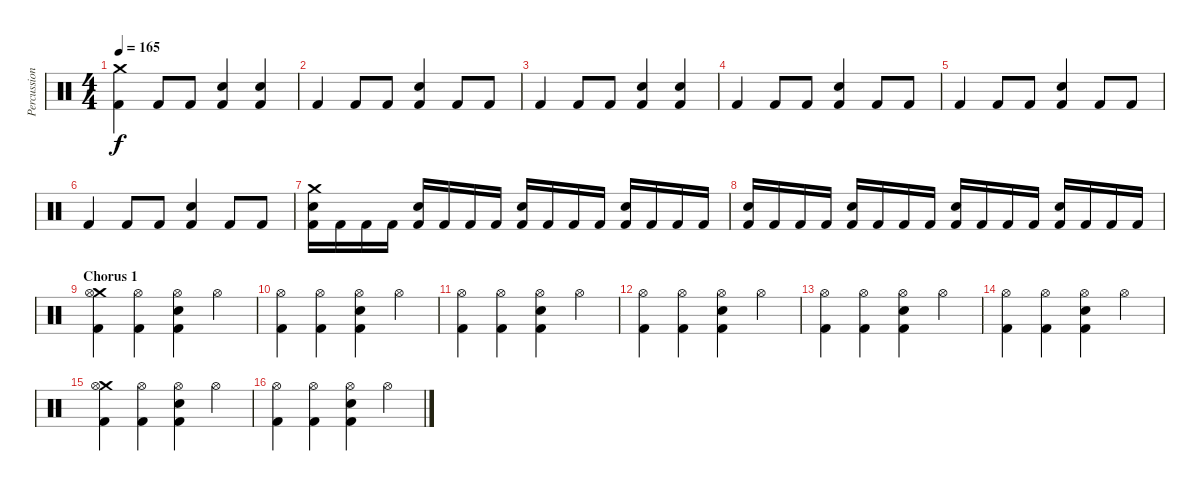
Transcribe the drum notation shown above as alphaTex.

\track ("Percussions" "Percussion") {instrument percussion}
\staff {score}
\articulation defaults
\ts (4 4)
\tempo 165
\clef neutral
\ks c
("Crash medium (hit)" "Kick (hit) 2").4{dy f} "Kick (hit) 2".8 "Kick (hit) 2".8 ("Electric Snare (hit)" "Kick (hit) 2").4 ("Electric Snare (hit)" "Kick (hit) 2").4 |
"Kick (hit) 2".4 "Kick (hit) 2".8 "Kick (hit) 2".8 ("Electric Snare (hit)" "Kick (hit) 2").4 "Kick (hit) 2".8 "Kick (hit) 2".8 |
"Kick (hit) 2".4 "Kick (hit) 2".8 "Kick (hit) 2".8 ("Electric Snare (hit)" "Kick (hit) 2").4 ("Electric Snare (hit)" "Kick (hit) 2").4 |
"Kick (hit) 2".4 "Kick (hit) 2".8 "Kick (hit) 2".8 ("Electric Snare (hit)" "Kick (hit) 2").4 "Kick (hit) 2".8 "Kick (hit) 2".8 |
"Kick (hit) 2".4 "Kick (hit) 2".8 "Kick (hit) 2".8 ("Electric Snare (hit)" "Kick (hit) 2").4 "Kick (hit) 2".8 "Kick (hit) 2".8 |
"Kick (hit) 2".4 "Kick (hit) 2".8 "Kick (hit) 2".8 ("Electric Snare (hit)" "Kick (hit) 2").4 "Kick (hit) 2".8 "Kick (hit) 2".8 |
("Crash medium (hit)" "Electric Snare (hit)" "Kick (hit) 2").16 "Kick (hit) 2".16 "Kick (hit) 2".16 "Kick (hit) 2".16 ("Electric Snare (hit)" "Kick (hit) 2").16 "Kick (hit) 2".16 "Kick (hit) 2".16 "Kick (hit) 2".16 ("Electric Snare (hit)" "Kick (hit) 2").16 "Kick (hit) 2".16 "Kick (hit) 2".16 "Kick (hit) 2".16 ("Electric Snare (hit)" "Kick (hit) 2").16 "Kick (hit) 2".16 "Kick (hit) 2".16 "Kick (hit) 2".16 |
("Electric Snare (hit)" "Kick (hit) 2").16 "Kick (hit) 2".16 "Kick (hit) 2".16 "Kick (hit) 2".16 ("Electric Snare (hit)" "Kick (hit) 2").16 "Kick (hit) 2".16 "Kick (hit) 2".16 "Kick (hit) 2".16 ("Electric Snare (hit)" "Kick (hit) 2").16 "Kick (hit) 2".16 "Kick (hit) 2".16 "Kick (hit) 2".16 ("Electric Snare (hit)" "Kick (hit) 2").16 "Kick (hit) 2".16 "Kick (hit) 2".16 "Kick (hit) 2".16 |
\section ("" "Chorus 1")
("Crash medium (hit)" "Hi-Hat (open)" "Kick (hit) 2").4 ("Hi-Hat (open)" "Kick (hit) 2").4 ("Hi-Hat (open)" "Electric Snare (hit)" "Kick (hit) 2").4 "Hi-Hat (open)".4 |
("Hi-Hat (open)" "Kick (hit) 2").4 ("Hi-Hat (open)" "Kick (hit) 2").4 ("Hi-Hat (open)" "Electric Snare (hit)" "Kick (hit) 2").4 "Hi-Hat (open)".4 |
("Hi-Hat (open)" "Kick (hit) 2").4 ("Hi-Hat (open)" "Kick (hit) 2").4 ("Hi-Hat (open)" "Electric Snare (hit)" "Kick (hit) 2").4 "Hi-Hat (open)".4 |
("Hi-Hat (open)" "Kick (hit) 2").4 ("Hi-Hat (open)" "Kick (hit) 2").4 ("Hi-Hat (open)" "Electric Snare (hit)" "Kick (hit) 2").4 "Hi-Hat (open)".4 |
("Hi-Hat (open)" "Kick (hit) 2").4 ("Hi-Hat (open)" "Kick (hit) 2").4 ("Hi-Hat (open)" "Electric Snare (hit)" "Kick (hit) 2").4 "Hi-Hat (open)".4 |
("Hi-Hat (open)" "Kick (hit) 2").4 ("Hi-Hat (open)" "Kick (hit) 2").4 ("Hi-Hat (open)" "Electric Snare (hit)" "Kick (hit) 2").4 "Hi-Hat (open)".4 |
("Crash medium (hit)" "Hi-Hat (open)" "Kick (hit) 2").4 ("Hi-Hat (open)" "Kick (hit) 2").4 ("Hi-Hat (open)" "Electric Snare (hit)" "Kick (hit) 2").4 "Hi-Hat (open)".4 |
("Hi-Hat (open)" "Kick (hit) 2").4 ("Hi-Hat (open)" "Kick (hit) 2").4 ("Hi-Hat (open)" "Electric Snare (hit)" "Kick (hit) 2").4 "Hi-Hat (open)".4
